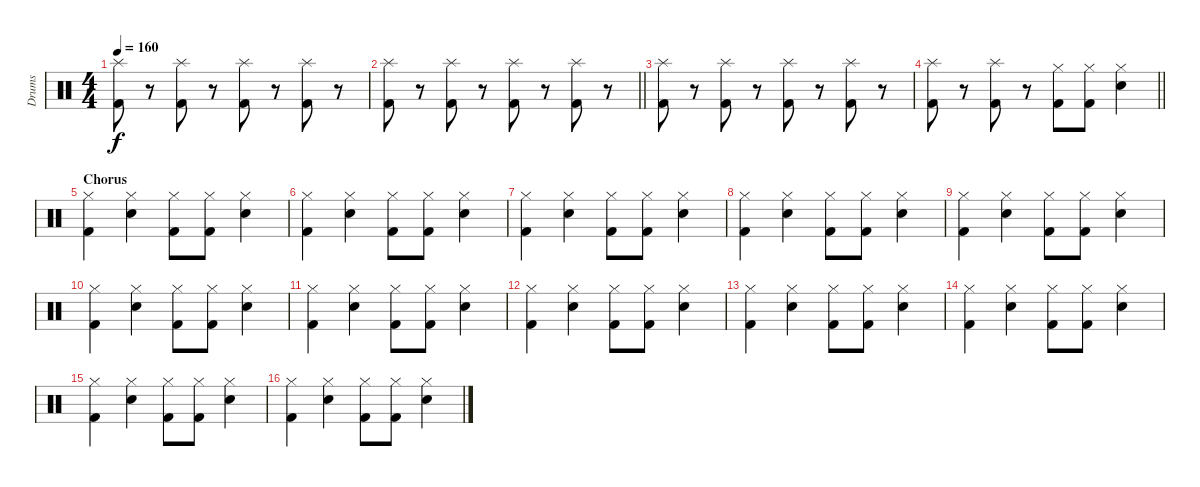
\track ("Drums" "Drums") {instrument percussion}
\staff {score}
\articulation defaults
\ts (4 4)
\tempo 160
\clef neutral
\ks c
("Splash (hit)" "Kick (hit) 2").8{dy f} r.8 ("Splash (hit)" "Kick (hit) 2").8 r.8 ("Splash (hit)" "Kick (hit) 2").8 r.8 ("Splash (hit)" "Kick (hit) 2").8 r.8 |
\barLineRight lightlight
("Splash (hit)" "Kick (hit) 2").8 r.8 ("Splash (hit)" "Kick (hit) 2").8 r.8 ("Splash (hit)" "Kick (hit) 2").8 r.8 ("Splash (hit)" "Kick (hit) 2").8 r.8 |
("Splash (hit)" "Kick (hit) 2").8 r.8 ("Splash (hit)" "Kick (hit) 2").8 r.8 ("Splash (hit)" "Kick (hit) 2").8 r.8 ("Splash (hit)" "Kick (hit) 2").8 r.8 |
\barLineRight lightlight
("Splash (hit)" "Kick (hit) 2").8 r.8 ("Splash (hit)" "Kick (hit) 2").8 r.8 ("Hi-Hat (closed)" "Kick (hit) 2").8 ("Hi-Hat (closed)" "Kick (hit) 2").8 ("Hi-Hat (closed)" "Snare (hit) 2").4 |
\section ("" "Chorus")
("Hi-Hat (closed)" "Kick (hit) 2").4 ("Hi-Hat (closed)" "Snare (hit) 2").4 ("Hi-Hat (closed)" "Kick (hit) 2").8 ("Hi-Hat (closed)" "Kick (hit) 2").8 ("Hi-Hat (closed)" "Snare (hit) 2").4 |
("Hi-Hat (closed)" "Kick (hit) 2").4 ("Hi-Hat (closed)" "Snare (hit) 2").4 ("Hi-Hat (closed)" "Kick (hit) 2").8 ("Hi-Hat (closed)" "Kick (hit) 2").8 ("Hi-Hat (closed)" "Snare (hit) 2").4 |
("Hi-Hat (closed)" "Kick (hit) 2").4 ("Hi-Hat (closed)" "Snare (hit) 2").4 ("Hi-Hat (closed)" "Kick (hit) 2").8 ("Hi-Hat (closed)" "Kick (hit) 2").8 ("Hi-Hat (closed)" "Snare (hit) 2").4 |
("Hi-Hat (closed)" "Kick (hit) 2").4 ("Hi-Hat (closed)" "Snare (hit) 2").4 ("Hi-Hat (closed)" "Kick (hit) 2").8 ("Hi-Hat (closed)" "Kick (hit) 2").8 ("Hi-Hat (closed)" "Snare (hit) 2").4 |
("Hi-Hat (closed)" "Kick (hit) 2").4 ("Hi-Hat (closed)" "Snare (hit) 2").4 ("Hi-Hat (closed)" "Kick (hit) 2").8 ("Hi-Hat (closed)" "Kick (hit) 2").8 ("Hi-Hat (closed)" "Snare (hit) 2").4 |
("Hi-Hat (closed)" "Kick (hit) 2").4 ("Hi-Hat (closed)" "Snare (hit) 2").4 ("Hi-Hat (closed)" "Kick (hit) 2").8 ("Hi-Hat (closed)" "Kick (hit) 2").8 ("Hi-Hat (closed)" "Snare (hit) 2").4 |
("Hi-Hat (closed)" "Kick (hit) 2").4 ("Hi-Hat (closed)" "Snare (hit) 2").4 ("Hi-Hat (closed)" "Kick (hit) 2").8 ("Hi-Hat (closed)" "Kick (hit) 2").8 ("Hi-Hat (closed)" "Snare (hit) 2").4 |
("Hi-Hat (closed)" "Kick (hit) 2").4 ("Hi-Hat (closed)" "Snare (hit) 2").4 ("Hi-Hat (closed)" "Kick (hit) 2").8 ("Hi-Hat (closed)" "Kick (hit) 2").8 ("Hi-Hat (closed)" "Snare (hit) 2").4 |
("Hi-Hat (closed)" "Kick (hit) 2").4 ("Hi-Hat (closed)" "Snare (hit) 2").4 ("Hi-Hat (closed)" "Kick (hit) 2").8 ("Hi-Hat (closed)" "Kick (hit) 2").8 ("Hi-Hat (closed)" "Snare (hit) 2").4 |
("Hi-Hat (closed)" "Kick (hit) 2").4 ("Hi-Hat (closed)" "Snare (hit) 2").4 ("Hi-Hat (closed)" "Kick (hit) 2").8 ("Hi-Hat (closed)" "Kick (hit) 2").8 ("Hi-Hat (closed)" "Snare (hit) 2").4 |
("Hi-Hat (closed)" "Kick (hit) 2").4 ("Hi-Hat (closed)" "Snare (hit) 2").4 ("Hi-Hat (closed)" "Kick (hit) 2").8 ("Hi-Hat (closed)" "Kick (hit) 2").8 ("Hi-Hat (closed)" "Snare (hit) 2").4 |
("Hi-Hat (closed)" "Kick (hit) 2").4 ("Hi-Hat (closed)" "Snare (hit) 2").4 ("Hi-Hat (closed)" "Kick (hit) 2").8 ("Hi-Hat (closed)" "Kick (hit) 2").8 ("Hi-Hat (closed)" "Snare (hit) 2").4
